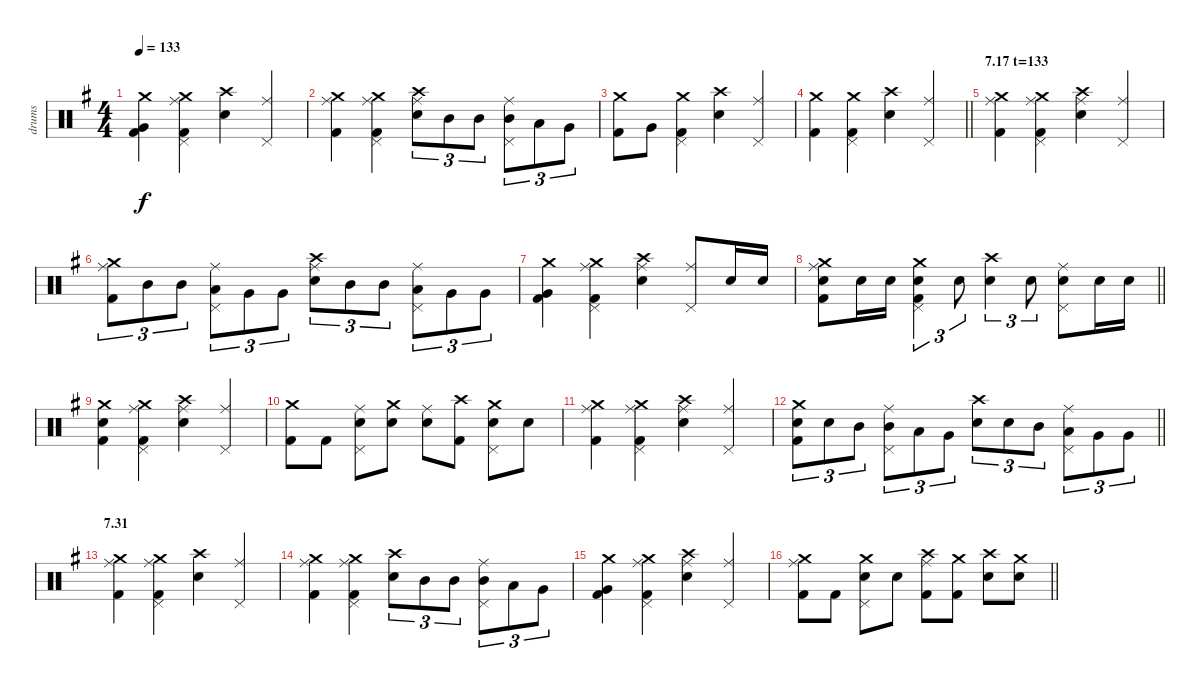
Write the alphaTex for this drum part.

\track ("drums" "drums") {instrument percussion}
\staff {score}
\articulation defaults
\ts (4 4)
\tempo 133
\clef neutral
\ks g
("Crash medium (hit)" "Very Low Tom (hit)" "Kick (hit) 2").4{dy f} ("Ride (middle)" "Pedal Hi-Hat (hit)" "Crash medium (hit)" "Kick (hit) 2").4 ("Crash high (hit)" "Electric Snare (hit)").4 ("Ride (middle)" "Pedal Hi-Hat (hit)").4 |
("Ride (middle)" "Crash medium (hit)" "Kick (hit) 2").4 ("Ride (middle)" "Pedal Hi-Hat (hit)" "Crash medium (hit)" "Kick (hit) 2").4 ("Ride (middle)" "Crash high (hit)" "Electric Snare (hit)").8{tu (3 2)} "Mid Tom (hit)".8{tu (3 2)} "Mid Tom (hit)".8{tu (3 2)} ("Ride (middle)" "Pedal Hi-Hat (hit)" "Mid Tom (hit)").8{tu (3 2)} "Low Tom (hit)".8{tu (3 2)} "Very Low Tom (hit)".8{tu (3 2)} |
("Crash medium (hit)" "Kick (hit) 2").8 "Very Low Tom (hit)".8 ("Pedal Hi-Hat (hit)" "Crash medium (hit)" "Kick (hit) 2").4 ("Crash high (hit)" "Electric Snare (hit)").4 ("Ride (middle)" "Pedal Hi-Hat (hit)").4 |
\barLineRight lightlight
("Crash medium (hit)" "Kick (hit) 2").4 ("Pedal Hi-Hat (hit)" "Crash medium (hit)" "Kick (hit) 2").4 ("Crash high (hit)" "Electric Snare (hit)").4 ("Ride (middle)" "Pedal Hi-Hat (hit)").4 |
\section ("" "7.17 t=133")
("Ride (middle)" "Crash medium (hit)" "Kick (hit) 2").4 ("Ride (middle)" "Pedal Hi-Hat (hit)" "Crash medium (hit)" "Kick (hit) 2").4 ("Ride (middle)" "Crash high (hit)" "Electric Snare (hit)").4 ("Ride (middle)" "Pedal Hi-Hat (hit)").4 |
("Ride (middle)" "Crash medium (hit)" "Kick (hit) 2").8{tu (3 2)} "Mid Tom (hit)".8{tu (3 2)} "Mid Tom (hit)".8{tu (3 2)} ("Ride (middle)" "Pedal Hi-Hat (hit)" "Low Tom (hit)").8{tu (3 2)} "Very Low Tom (hit)".8{tu (3 2)} "Very Low Tom (hit)".8{tu (3 2)} ("Ride (middle)" "Crash high (hit)" "Electric Snare (hit)").8{tu (3 2)} "Mid Tom (hit)".8{tu (3 2)} "Mid Tom (hit)".8{tu (3 2)} ("Ride (middle)" "Pedal Hi-Hat (hit)" "Low Tom (hit)").8{tu (3 2)} "Very Low Tom (hit)".8{tu (3 2)} "Very Low Tom (hit)".8{tu (3 2)} |
("Crash medium (hit)" "Very Low Tom (hit)" "Kick (hit) 2").4 ("Ride (middle)" "Pedal Hi-Hat (hit)" "Crash medium (hit)" "Kick (hit) 2").4 ("Ride (middle)" "Crash high (hit)" "Electric Snare (hit)").4 ("Ride (middle)" "Pedal Hi-Hat (hit)").8 "Electric Snare (hit)".16 "Electric Snare (hit)".16 |
\barLineRight lightlight
("Ride (middle)" "Crash medium (hit)" "Electric Snare (hit)" "Kick (hit) 2").8 "Electric Snare (hit)".16 "Electric Snare (hit)".16 ("Pedal Hi-Hat (hit)" "Crash medium (hit)" "Electric Snare (hit)" "Kick (hit) 2").4{tu (3 2)} "Electric Snare (hit)".8{tu (3 2)} ("Crash high (hit)" "Electric Snare (hit)").4{tu (3 2)} "Electric Snare (hit)".8{tu (3 2)} ("Ride (middle)" "Pedal Hi-Hat (hit)" "Electric Snare (hit)").8 "Electric Snare (hit)".16 "Electric Snare (hit)".16 |
("Crash medium (hit)" "Electric Snare (hit)" "Kick (hit) 2").4 ("Ride (middle)" "Pedal Hi-Hat (hit)" "Crash medium (hit)" "Kick (hit) 2").4 ("Ride (middle)" "Crash high (hit)" "Electric Snare (hit)").4 ("Ride (middle)" "Pedal Hi-Hat (hit)").4 |
("Crash medium (hit)" "Kick (hit) 2").8 "Kick (hit) 2".8 ("Ride (middle)" "Pedal Hi-Hat (hit)" "Electric Snare (hit)").8 ("Crash medium (hit)" "Electric Snare (hit)").8 ("Ride (middle)" "Electric Snare (hit)").8 ("Crash high (hit)" "Kick (hit) 2").8 ("Pedal Hi-Hat (hit)" "Crash medium (hit)" "Electric Snare (hit)").8 "Electric Snare (hit)".8 |
("Ride (middle)" "Crash medium (hit)" "Kick (hit) 2").4 ("Ride (middle)" "Pedal Hi-Hat (hit)" "Crash medium (hit)" "Kick (hit) 2").4 ("Ride (middle)" "Crash high (hit)" "Electric Snare (hit)").4 ("Ride (middle)" "Pedal Hi-Hat (hit)").4 |
\barLineRight lightlight
("Crash medium (hit)" "Electric Snare (hit)" "Kick (hit) 2").8{tu (3 2)} "Electric Snare (hit)".8{tu (3 2)} "Mid Tom (hit)".8{tu (3 2)} ("Ride (middle)" "Pedal Hi-Hat (hit)" "Mid Tom (hit)").8{tu (3 2)} "Low Tom (hit)".8{tu (3 2)} "Very Low Tom (hit)".8{tu (3 2)} ("Crash high (hit)" "Electric Snare (hit)").8{tu (3 2)} "Electric Snare (hit)".8{tu (3 2)} "Mid Tom (hit)".8{tu (3 2)} ("Ride (middle)" "Pedal Hi-Hat (hit)" "Low Tom (hit)").8{tu (3 2)} "Very Low Tom (hit)".8{tu (3 2)} "Very Low Tom (hit)".8{tu (3 2)} |
\section ("" "7.31")
("Ride (middle)" "Crash medium (hit)" "Kick (hit) 2").4 ("Ride (middle)" "Pedal Hi-Hat (hit)" "Crash medium (hit)" "Kick (hit) 2").4 ("Crash high (hit)" "Electric Snare (hit)").4 ("Ride (middle)" "Pedal Hi-Hat (hit)").4 |
("Ride (middle)" "Crash medium (hit)" "Kick (hit) 2").4 ("Ride (middle)" "Pedal Hi-Hat (hit)" "Crash medium (hit)" "Kick (hit) 2").4 ("Crash high (hit)" "Electric Snare (hit)").8{tu (3 2)} "Mid Tom (hit)".8{tu (3 2)} "Mid Tom (hit)".8{tu (3 2)} ("Ride (middle)" "Pedal Hi-Hat (hit)" "Mid Tom (hit)").8{tu (3 2)} "Low Tom (hit)".8{tu (3 2)} "Very Low Tom (hit)".8{tu (3 2)} |
("Crash medium (hit)" "Very Low Tom (hit)" "Kick (hit) 2").4 ("Ride (middle)" "Pedal Hi-Hat (hit)" "Crash medium (hit)" "Kick (hit) 2").4 ("Ride (middle)" "Crash high (hit)" "Electric Snare (hit)").4 ("Ride (middle)" "Pedal Hi-Hat (hit)").4 |
\barLineRight lightlight
("Ride (middle)" "Crash medium (hit)" "Kick (hit) 2").8 "Kick (hit) 2".8 ("Pedal Hi-Hat (hit)" "Crash medium (hit)" "Electric Snare (hit)").8 "Electric Snare (hit)".8 ("Ride (middle)" "Crash high (hit)" "Kick (hit) 2").8 ("Crash medium (hit)" "Kick (hit) 2").8 ("Crash high (hit)" "Electric Snare (hit)").8 ("Crash medium (hit)" "Electric Snare (hit)").8
